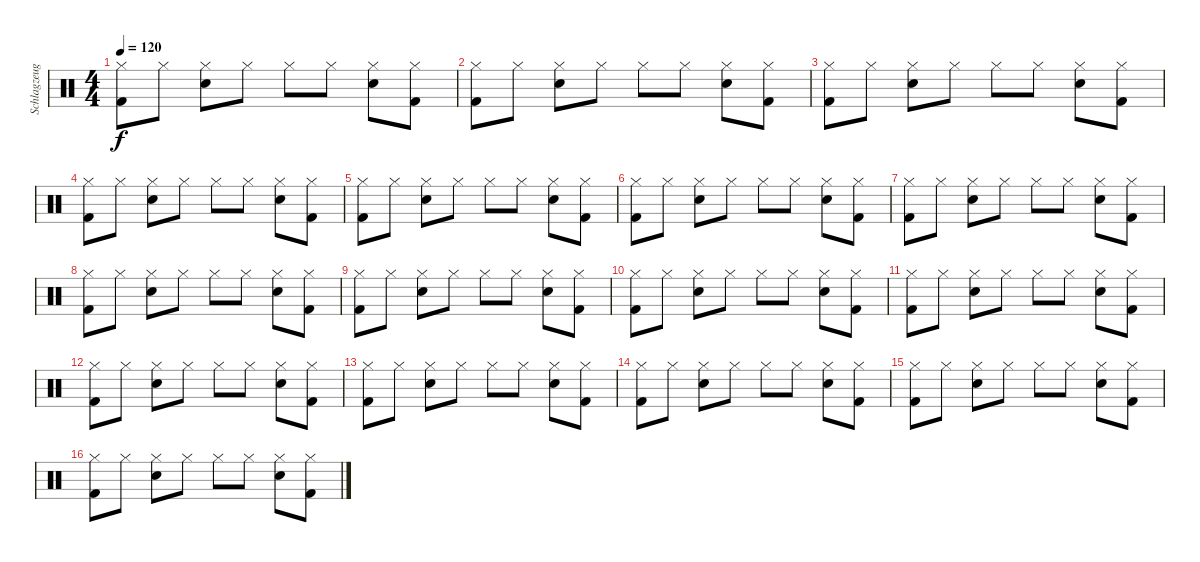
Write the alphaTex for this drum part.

\track ("Schlagzeug[Gustav Schäfer]" "Schlagzeug") {instrument percussion}
\staff {score}
\articulation defaults
\ts (4 4)
\tempo 120
\clef neutral
\ks c
("Kick (hit) 2" "Hi-Hat (closed)").8{dy f} "Hi-Hat (closed)".8 ("Hi-Hat (closed)" "Snare (hit) 2").8 "Hi-Hat (closed)".8 "Hi-Hat (closed)".8 "Hi-Hat (closed)".8 ("Snare (hit) 2" "Hi-Hat (closed)").8 ("Hi-Hat (closed)" "Kick (hit) 2").8 |
("Kick (hit) 2" "Hi-Hat (closed)").8 "Hi-Hat (closed)".8 ("Hi-Hat (closed)" "Snare (hit) 2").8 "Hi-Hat (closed)".8 "Hi-Hat (closed)".8 "Hi-Hat (closed)".8 ("Snare (hit) 2" "Hi-Hat (closed)").8 ("Hi-Hat (closed)" "Kick (hit) 2").8 |
("Kick (hit) 2" "Hi-Hat (closed)").8 "Hi-Hat (closed)".8 ("Hi-Hat (closed)" "Snare (hit) 2").8 "Hi-Hat (closed)".8 "Hi-Hat (closed)".8 "Hi-Hat (closed)".8 ("Snare (hit) 2" "Hi-Hat (closed)").8 ("Hi-Hat (closed)" "Kick (hit) 2").8 |
("Kick (hit) 2" "Hi-Hat (closed)").8 "Hi-Hat (closed)".8 ("Hi-Hat (closed)" "Snare (hit) 2").8 "Hi-Hat (closed)".8 "Hi-Hat (closed)".8 "Hi-Hat (closed)".8 ("Snare (hit) 2" "Hi-Hat (closed)").8 ("Hi-Hat (closed)" "Kick (hit) 2").8 |
("Kick (hit) 2" "Hi-Hat (closed)").8 "Hi-Hat (closed)".8 ("Hi-Hat (closed)" "Snare (hit) 2").8 "Hi-Hat (closed)".8 "Hi-Hat (closed)".8 "Hi-Hat (closed)".8 ("Snare (hit) 2" "Hi-Hat (closed)").8 ("Hi-Hat (closed)" "Kick (hit) 2").8 |
("Kick (hit) 2" "Hi-Hat (closed)").8 "Hi-Hat (closed)".8 ("Hi-Hat (closed)" "Snare (hit) 2").8 "Hi-Hat (closed)".8 "Hi-Hat (closed)".8 "Hi-Hat (closed)".8 ("Snare (hit) 2" "Hi-Hat (closed)").8 ("Hi-Hat (closed)" "Kick (hit) 2").8 |
("Kick (hit) 2" "Hi-Hat (closed)").8 "Hi-Hat (closed)".8 ("Hi-Hat (closed)" "Snare (hit) 2").8 "Hi-Hat (closed)".8 "Hi-Hat (closed)".8 "Hi-Hat (closed)".8 ("Snare (hit) 2" "Hi-Hat (closed)").8 ("Hi-Hat (closed)" "Kick (hit) 2").8 |
("Kick (hit) 2" "Hi-Hat (closed)").8 "Hi-Hat (closed)".8 ("Hi-Hat (closed)" "Snare (hit) 2").8 "Hi-Hat (closed)".8 "Hi-Hat (closed)".8 "Hi-Hat (closed)".8 ("Snare (hit) 2" "Hi-Hat (closed)").8 ("Hi-Hat (closed)" "Kick (hit) 2").8 |
("Kick (hit) 2" "Hi-Hat (closed)").8 "Hi-Hat (closed)".8 ("Hi-Hat (closed)" "Snare (hit) 2").8 "Hi-Hat (closed)".8 "Hi-Hat (closed)".8 "Hi-Hat (closed)".8 ("Snare (hit) 2" "Hi-Hat (closed)").8 ("Hi-Hat (closed)" "Kick (hit) 2").8 |
("Kick (hit) 2" "Hi-Hat (closed)").8 "Hi-Hat (closed)".8 ("Hi-Hat (closed)" "Snare (hit) 2").8 "Hi-Hat (closed)".8 "Hi-Hat (closed)".8 "Hi-Hat (closed)".8 ("Snare (hit) 2" "Hi-Hat (closed)").8 ("Hi-Hat (closed)" "Kick (hit) 2").8 |
("Kick (hit) 2" "Hi-Hat (closed)").8 "Hi-Hat (closed)".8 ("Hi-Hat (closed)" "Snare (hit) 2").8 "Hi-Hat (closed)".8 "Hi-Hat (closed)".8 "Hi-Hat (closed)".8 ("Snare (hit) 2" "Hi-Hat (closed)").8 ("Hi-Hat (closed)" "Kick (hit) 2").8 |
("Kick (hit) 2" "Hi-Hat (closed)").8 "Hi-Hat (closed)".8 ("Hi-Hat (closed)" "Snare (hit) 2").8 "Hi-Hat (closed)".8 "Hi-Hat (closed)".8 "Hi-Hat (closed)".8 ("Snare (hit) 2" "Hi-Hat (closed)").8 ("Hi-Hat (closed)" "Kick (hit) 2").8 |
("Kick (hit) 2" "Hi-Hat (closed)").8 "Hi-Hat (closed)".8 ("Hi-Hat (closed)" "Snare (hit) 2").8 "Hi-Hat (closed)".8 "Hi-Hat (closed)".8 "Hi-Hat (closed)".8 ("Snare (hit) 2" "Hi-Hat (closed)").8 ("Hi-Hat (closed)" "Kick (hit) 2").8 |
("Kick (hit) 2" "Hi-Hat (closed)").8 "Hi-Hat (closed)".8 ("Hi-Hat (closed)" "Snare (hit) 2").8 "Hi-Hat (closed)".8 "Hi-Hat (closed)".8 "Hi-Hat (closed)".8 ("Snare (hit) 2" "Hi-Hat (closed)").8 ("Hi-Hat (closed)" "Kick (hit) 2").8 |
("Kick (hit) 2" "Hi-Hat (closed)").8 "Hi-Hat (closed)".8 ("Hi-Hat (closed)" "Snare (hit) 2").8 "Hi-Hat (closed)".8 "Hi-Hat (closed)".8 "Hi-Hat (closed)".8 ("Snare (hit) 2" "Hi-Hat (closed)").8 ("Hi-Hat (closed)" "Kick (hit) 2").8 |
("Kick (hit) 2" "Hi-Hat (closed)").8 "Hi-Hat (closed)".8 ("Hi-Hat (closed)" "Snare (hit) 2").8 "Hi-Hat (closed)".8 "Hi-Hat (closed)".8 "Hi-Hat (closed)".8 ("Snare (hit) 2" "Hi-Hat (closed)").8 ("Hi-Hat (closed)" "Kick (hit) 2").8
